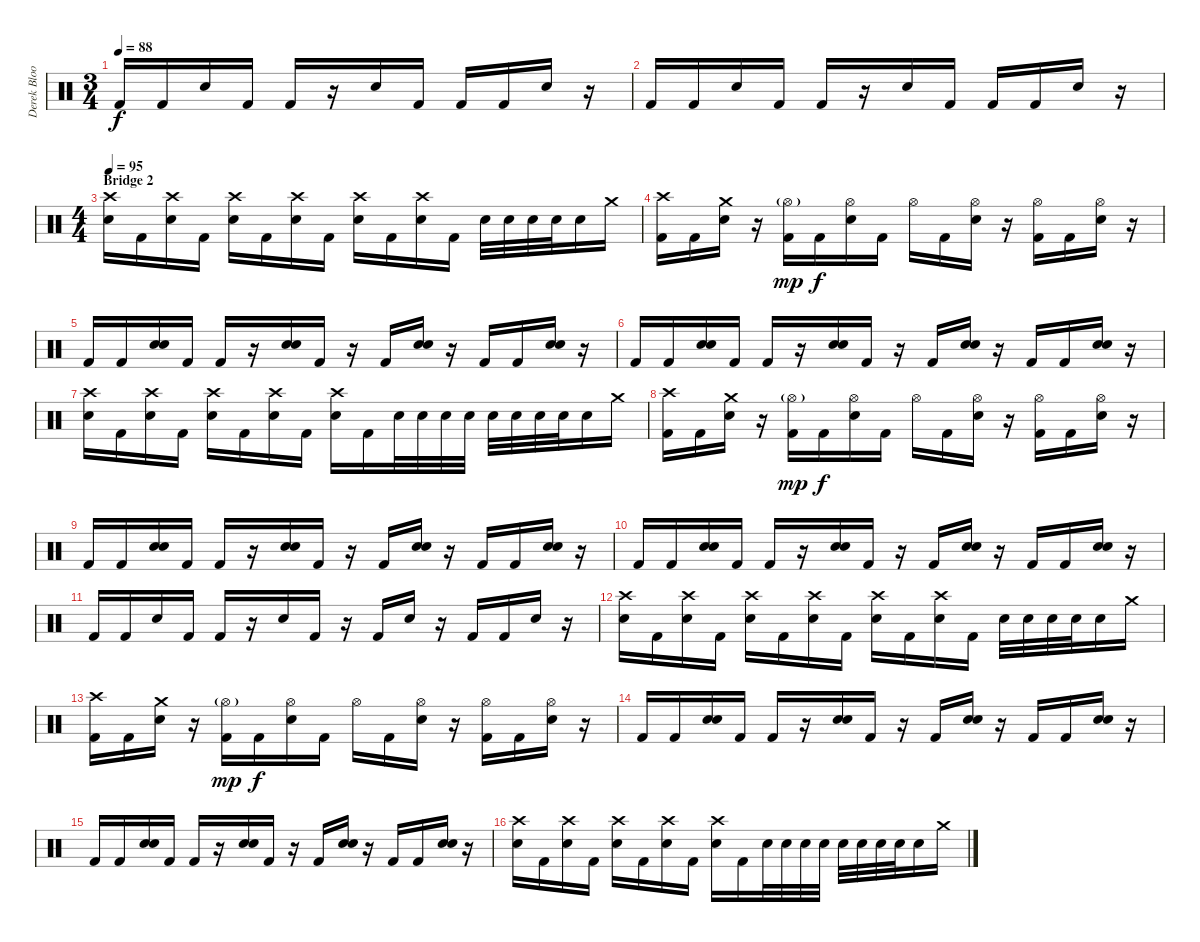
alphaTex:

\track ("Derek Bloom (Drums)" "Derek Bloo") {instrument percussion}
\staff {score}
\articulation defaults
\ts (3 4)
\tempo 88
\clef neutral
\ks c "Kick (hit) 2".16{dy f} "Kick (hit) 2".16 "Electric Snare (hit)".16 "Kick (hit) 2".16 "Kick (hit) 2".16
r.16 "Electric Snare (hit)".16 "Kick (hit) 2".16 "Kick (hit) 2".16 "Kick (hit) 2".16 "Electric Snare (hit)".16 r.16 |
"Kick (hit) 2".16 "Kick (hit) 2".16 "Electric Snare (hit)".16 "Kick (hit) 2".16 "Kick (hit) 2".16 r.16 "Electric Snare (hit)".16 "Kick (hit) 2".16 "Kick (hit) 2".16 "Kick (hit) 2".16 "Electric Snare (hit)".16 r.16 |
\ts (4 4)
\section ("" "Bridge 2")
\tempo 95
("Crash high (hit)" "Electric Snare (hit)").16 "Kick (hit) 2".16 ("Crash high (hit)" "Electric Snare (hit)").16 "Kick (hit) 2".16 ("Crash high (hit)" "Electric Snare (hit)").16 "Kick (hit) 2".16 ("Crash high (hit)" "Electric Snare (hit)").16 "Kick (hit) 2".16 ("Crash high (hit)" "Electric Snare (hit)").16 "Kick (hit) 2".16 ("Crash high (hit)" "Electric Snare (hit)").16 "Kick (hit) 2".16 "Electric Snare (hit)".32 "Electric Snare (hit)".32 "Electric Snare (hit)".32 "Electric Snare (hit)".32 "Electric Snare (hit)".16 "Crash medium (hit)".16 |
("Crash high (hit)" "Kick (hit) 2").16 "Kick (hit) 2".16 ("Crash medium (hit)" "Electric Snare (hit)").16 r.16 ("Hi-Hat (open)"{g} "Kick (hit) 2").16{dy mp} "Kick (hit) 2".16{dy f} ("Hi-Hat (open)" "Electric Snare (hit)").16 "Kick (hit) 2".16 "Hi-Hat (open)".16 "Kick (hit) 2".16 ("Hi-Hat (open)" "Electric Snare (hit)").16 r.16 ("Hi-Hat (open)" "Kick (hit) 2").16 "Kick (hit) 2".16 ("Hi-Hat (open)" "Electric Snare (hit)").16 r.16 |
"Kick (hit) 2".16 "Kick (hit) 2".16 ("Electric Snare (hit)" "Hand Clap (hit)").16 "Kick (hit) 2".16 "Kick (hit) 2".16 r.16 ("Electric Snare (hit)" "Hand Clap (hit)").16 "Kick (hit) 2".16 r.16 "Kick (hit) 2".16 ("Electric Snare (hit)" "Hand Clap (hit)").16 r.16 "Kick (hit) 2".16 "Kick (hit) 2".16 ("Electric Snare (hit)" "Hand Clap (hit)").16 r.16 |
"Kick (hit) 2".16 "Kick (hit) 2".16 ("Electric Snare (hit)" "Hand Clap (hit)").16 "Kick (hit) 2".16 "Kick (hit) 2".16 r.16 ("Electric Snare (hit)" "Hand Clap (hit)").16 "Kick (hit) 2".16 r.16 "Kick (hit) 2".16 ("Electric Snare (hit)" "Hand Clap (hit)").16 r.16 "Kick (hit) 2".16 "Kick (hit) 2".16 ("Electric Snare (hit)" "Hand Clap (hit)").16 r.16 |
("Crash high (hit)" "Electric Snare (hit)").16 "Kick (hit) 2".16 ("Crash high (hit)" "Electric Snare (hit)").16 "Kick (hit) 2".16 ("Crash high (hit)" "Electric Snare (hit)").16 "Kick (hit) 2".16 ("Crash high (hit)" "Electric Snare (hit)").16 "Kick (hit) 2".16 ("Crash high (hit)" "Electric Snare (hit)").16 "Kick (hit) 2".16 "Electric Snare (hit)".32 "Electric Snare (hit)".32 "Electric Snare (hit)".32 "Electric Snare (hit)".32 "Electric Snare (hit)".32 "Electric Snare (hit)".32 "Electric Snare (hit)".32 "Electric Snare (hit)".32 "Electric Snare (hit)".16 "Crash medium (hit)".16 |
("Crash high (hit)" "Kick (hit) 2").16 "Kick (hit) 2".16 ("Crash medium (hit)" "Electric Snare (hit)").16 r.16 ("Hi-Hat (open)"{g} "Kick (hit) 2").16{dy mp} "Kick (hit) 2".16{dy f} ("Hi-Hat (open)" "Electric Snare (hit)").16 "Kick (hit) 2".16 "Hi-Hat (open)".16 "Kick (hit) 2".16 ("Hi-Hat (open)" "Electric Snare (hit)").16 r.16 ("Hi-Hat (open)" "Kick (hit) 2").16 "Kick (hit) 2".16 ("Hi-Hat (open)" "Electric Snare (hit)").16 r.16 |
"Kick (hit) 2".16 "Kick (hit) 2".16 ("Electric Snare (hit)" "Hand Clap (hit)").16 "Kick (hit) 2".16 "Kick (hit) 2".16 r.16 ("Electric Snare (hit)" "Hand Clap (hit)").16 "Kick (hit) 2".16 r.16 "Kick (hit) 2".16 ("Electric Snare (hit)" "Hand Clap (hit)").16 r.16 "Kick (hit) 2".16 "Kick (hit) 2".16 ("Electric Snare (hit)" "Hand Clap (hit)").16 r.16 |
"Kick (hit) 2".16 "Kick (hit) 2".16 ("Electric Snare (hit)" "Hand Clap (hit)").16 "Kick (hit) 2".16 "Kick (hit) 2".16 r.16 ("Electric Snare (hit)" "Hand Clap (hit)").16 "Kick (hit) 2".16 r.16 "Kick (hit) 2".16 ("Electric Snare (hit)" "Hand Clap (hit)").16 r.16 "Kick (hit) 2".16 "Kick (hit) 2".16 ("Electric Snare (hit)" "Hand Clap (hit)").16 r.16 |
"Kick (hit) 2".16 "Kick (hit) 2".16 "Electric Snare (hit)".16 "Kick (hit) 2".16 "Kick (hit) 2".16 r.16 "Electric Snare (hit)".16 "Kick (hit) 2".16 r.16 "Kick (hit) 2".16 "Electric Snare (hit)".16 r.16 "Kick (hit) 2".16 "Kick (hit) 2".16 "Electric Snare (hit)".16 r.16 |
("Crash high (hit)" "Electric Snare (hit)").16 "Kick (hit) 2".16 ("Crash high (hit)" "Electric Snare (hit)").16 "Kick (hit) 2".16 ("Crash high (hit)" "Electric Snare (hit)").16 "Kick (hit) 2".16 ("Crash high (hit)" "Electric Snare (hit)").16 "Kick (hit) 2".16 ("Crash high (hit)" "Electric Snare (hit)").16 "Kick (hit) 2".16 ("Crash high (hit)" "Electric Snare (hit)").16 "Kick (hit) 2".16 "Electric Snare (hit)".32 "Electric Snare (hit)".32 "Electric Snare (hit)".32 "Electric Snare (hit)".32 "Electric Snare (hit)".16 "Crash medium (hit)".16 |
("Crash high (hit)" "Kick (hit) 2").16 "Kick (hit) 2".16 ("Crash medium (hit)" "Electric Snare (hit)").16 r.16 ("Hi-Hat (open)"{g} "Kick (hit) 2").16{dy mp} "Kick (hit) 2".16{dy f} ("Hi-Hat (open)" "Electric Snare (hit)").16 "Kick (hit) 2".16 "Hi-Hat (open)".16 "Kick (hit) 2".16 ("Hi-Hat (open)" "Electric Snare (hit)").16 r.16 ("Hi-Hat (open)" "Kick (hit) 2").16 "Kick (hit) 2".16 ("Hi-Hat (open)" "Electric Snare (hit)").16 r.16 |
"Kick (hit) 2".16 "Kick (hit) 2".16 ("Electric Snare (hit)" "Hand Clap (hit)").16 "Kick (hit) 2".16 "Kick (hit) 2".16 r.16 ("Electric Snare (hit)" "Hand Clap (hit)").16 "Kick (hit) 2".16 r.16 "Kick (hit) 2".16 ("Electric Snare (hit)" "Hand Clap (hit)").16 r.16 "Kick (hit) 2".16 "Kick (hit) 2".16 ("Electric Snare (hit)" "Hand Clap (hit)").16 r.16 |
"Kick (hit) 2".16 "Kick (hit) 2".16 ("Electric Snare (hit)" "Hand Clap (hit)").16 "Kick (hit) 2".16 "Kick (hit) 2".16 r.16 ("Electric Snare (hit)" "Hand Clap (hit)").16 "Kick (hit) 2".16 r.16 "Kick (hit) 2".16 ("Electric Snare (hit)" "Hand Clap (hit)").16 r.16 "Kick (hit) 2".16 "Kick (hit) 2".16 ("Electric Snare (hit)" "Hand Clap (hit)").16 r.16 |
("Crash high (hit)" "Electric Snare (hit)").16 "Kick (hit) 2".16 ("Crash high (hit)" "Electric Snare (hit)").16 "Kick (hit) 2".16 ("Crash high (hit)" "Electric Snare (hit)").16 "Kick (hit) 2".16 ("Crash high (hit)" "Electric Snare (hit)").16 "Kick (hit) 2".16 ("Crash high (hit)" "Electric Snare (hit)").16 "Kick (hit) 2".16 "Electric Snare (hit)".32 "Electric Snare (hit)".32 "Electric Snare (hit)".32 "Electric Snare (hit)".32 "Electric Snare (hit)".32 "Electric Snare (hit)".32 "Electric Snare (hit)".32 "Electric Snare (hit)".32 "Electric Snare (hit)".16 "Crash medium (hit)".16
